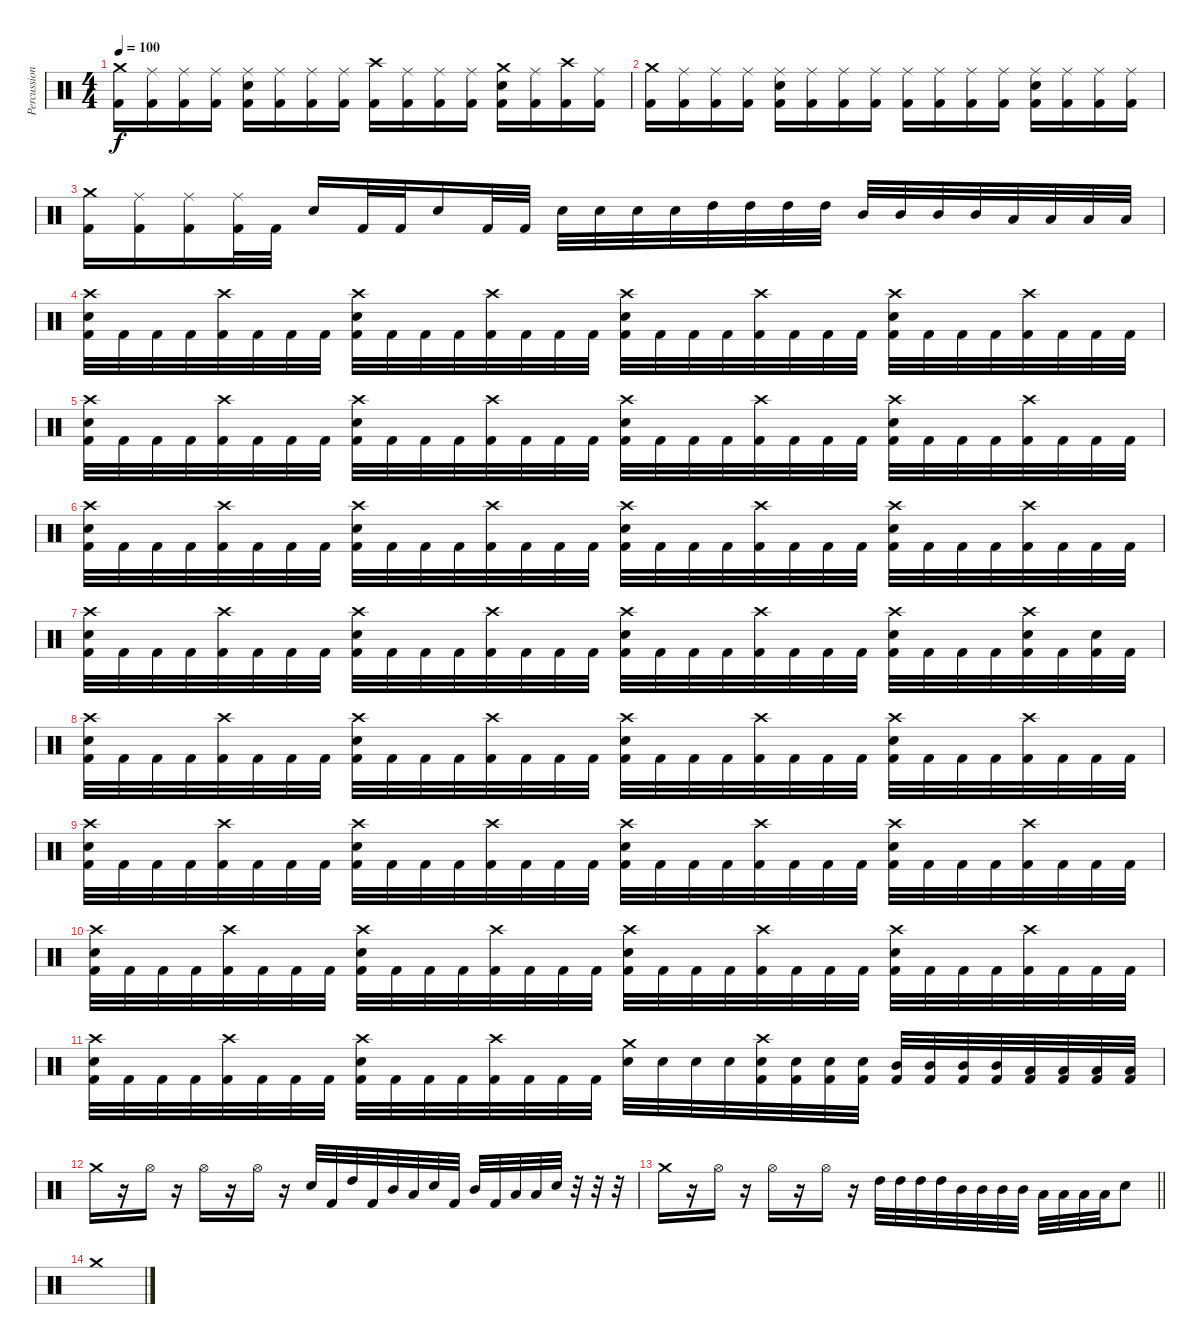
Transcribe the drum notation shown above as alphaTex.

\track ("Percussion" "Percussion") {instrument percussion}
\staff {score}
\articulation defaults
\ts (4 4)
\tempo 100
\clef neutral
\ks c
("Crash medium (hit)" "Kick (hit) 2").16{dy f} ("Ride (middle)" "Kick (hit) 2").16 ("Ride (middle)" "Kick (hit) 2").16 ("Ride (middle)" "Kick (hit) 2").16 ("Ride (middle)" "Electric Snare (hit)" "Kick (hit) 2").16 ("Ride (middle)" "Kick (hit) 2").16 ("Ride (middle)" "Kick (hit) 2").16 ("Ride (middle)" "Kick (hit) 2").16 ("Crash high (hit)" "Kick (hit) 2").16 ("Ride (middle)" "Kick (hit) 2").16 ("Ride (middle)" "Kick (hit) 2").16 ("Ride (middle)" "Kick (hit) 2").16 ("Crash medium (hit)" "Electric Snare (hit)" "Kick (hit) 2").16 ("Ride (middle)" "Kick (hit) 2").16 ("Crash high (hit)" "Kick (hit) 2").16 ("Ride (middle)" "Kick (hit) 2").16 |
("Crash medium (hit)" "Kick (hit) 2").16 ("Ride (middle)" "Kick (hit) 2").16 ("Ride (middle)" "Kick (hit) 2").16 ("Ride (middle)" "Kick (hit) 2").16 ("Ride (middle)" "Electric Snare (hit)" "Kick (hit) 2").16 ("Ride (middle)" "Kick (hit) 2").16 ("Ride (middle)" "Kick (hit) 2").16 ("Ride (middle)" "Kick (hit) 2").16 ("Ride (middle)" "Kick (hit) 2").16 ("Ride (middle)" "Kick (hit) 2").16 ("Ride (middle)" "Kick (hit) 2").16 ("Ride (middle)" "Kick (hit) 2").16 ("Ride (middle)" "Electric Snare (hit)" "Kick (hit) 2").16 ("Ride (middle)" "Kick (hit) 2").16 ("Ride (middle)" "Kick (hit) 2").16 ("Ride (middle)" "Kick (hit) 2").16 |
("Crash medium (hit)" "Kick (hit) 2").16 ("Ride (middle)" "Kick (hit) 2").16 ("Ride (middle)" "Kick (hit) 2").16 ("Ride (middle)" "Kick (hit) 2").32 "Kick (hit) 2".32 "Electric Snare (hit)".16 "Kick (hit) 2".32 "Kick (hit) 2".32 "Electric Snare (hit)".16 "Kick (hit) 2".32 "Kick (hit) 2".32 "Electric Snare (hit)".32 "Electric Snare (hit)".32 "Electric Snare (hit)".32 "Electric Snare (hit)".32 "High Tom (hit)".32 "High Tom (hit)".32 "High Tom (hit)".32 "High Tom (hit)".32 "Mid Tom (hit)".32 "Mid Tom (hit)".32 "Mid Tom (hit)".32 "Mid Tom (hit)".32 "Low Tom (hit)".32 "Low Tom (hit)".32 "Low Tom (hit)".32 "Low Tom (hit)".32 |
("Crash high (hit)" "Electric Snare (hit)" "Kick (hit) 2").32 "Kick (hit) 2".32 "Kick (hit) 2".32 "Kick (hit) 2".32 ("Crash high (hit)" "Kick (hit) 2").32 "Kick (hit) 2".32 "Kick (hit) 2".32 "Kick (hit) 2".32 ("Crash high (hit)" "Electric Snare (hit)" "Kick (hit) 2").32 "Kick (hit) 2".32 "Kick (hit) 2".32 "Kick (hit) 2".32 ("Crash high (hit)" "Kick (hit) 2").32 "Kick (hit) 2".32 "Kick (hit) 2".32 "Kick (hit) 2".32 ("Crash high (hit)" "Electric Snare (hit)" "Kick (hit) 2").32 "Kick (hit) 2".32 "Kick (hit) 2".32 "Kick (hit) 2".32 ("Crash high (hit)" "Kick (hit) 2").32 "Kick (hit) 2".32 "Kick (hit) 2".32 "Kick (hit) 2".32 ("Crash high (hit)" "Electric Snare (hit)" "Kick (hit) 2").32 "Kick (hit) 2".32 "Kick (hit) 2".32 "Kick (hit) 2".32 ("Crash high (hit)" "Kick (hit) 2").32 "Kick (hit) 2".32 "Kick (hit) 2".32 "Kick (hit) 2".32 |
("Crash high (hit)" "Electric Snare (hit)" "Kick (hit) 2").32 "Kick (hit) 2".32 "Kick (hit) 2".32 "Kick (hit) 2".32 ("Crash high (hit)" "Kick (hit) 2").32 "Kick (hit) 2".32 "Kick (hit) 2".32 "Kick (hit) 2".32 ("Crash high (hit)" "Electric Snare (hit)" "Kick (hit) 2").32 "Kick (hit) 2".32 "Kick (hit) 2".32 "Kick (hit) 2".32 ("Crash high (hit)" "Kick (hit) 2").32 "Kick (hit) 2".32 "Kick (hit) 2".32 "Kick (hit) 2".32 ("Crash high (hit)" "Electric Snare (hit)" "Kick (hit) 2").32 "Kick (hit) 2".32 "Kick (hit) 2".32 "Kick (hit) 2".32 ("Crash high (hit)" "Kick (hit) 2").32 "Kick (hit) 2".32 "Kick (hit) 2".32 "Kick (hit) 2".32 ("Crash high (hit)" "Electric Snare (hit)" "Kick (hit) 2").32 "Kick (hit) 2".32 "Kick (hit) 2".32 "Kick (hit) 2".32 ("Crash high (hit)" "Kick (hit) 2").32 "Kick (hit) 2".32 "Kick (hit) 2".32 "Kick (hit) 2".32 |
("Crash high (hit)" "Electric Snare (hit)" "Kick (hit) 2").32 "Kick (hit) 2".32 "Kick (hit) 2".32 "Kick (hit) 2".32 ("Crash high (hit)" "Kick (hit) 2").32 "Kick (hit) 2".32 "Kick (hit) 2".32 "Kick (hit) 2".32 ("Crash high (hit)" "Electric Snare (hit)" "Kick (hit) 2").32 "Kick (hit) 2".32 "Kick (hit) 2".32 "Kick (hit) 2".32 ("Crash high (hit)" "Kick (hit) 2").32 "Kick (hit) 2".32 "Kick (hit) 2".32 "Kick (hit) 2".32 ("Crash high (hit)" "Electric Snare (hit)" "Kick (hit) 2").32 "Kick (hit) 2".32 "Kick (hit) 2".32 "Kick (hit) 2".32 ("Crash high (hit)" "Kick (hit) 2").32 "Kick (hit) 2".32 "Kick (hit) 2".32 "Kick (hit) 2".32 ("Crash high (hit)" "Electric Snare (hit)" "Kick (hit) 2").32 "Kick (hit) 2".32 "Kick (hit) 2".32 "Kick (hit) 2".32 ("Crash high (hit)" "Kick (hit) 2").32 "Kick (hit) 2".32 "Kick (hit) 2".32 "Kick (hit) 2".32 |
("Crash high (hit)" "Electric Snare (hit)" "Kick (hit) 2").32 "Kick (hit) 2".32 "Kick (hit) 2".32 "Kick (hit) 2".32 ("Crash high (hit)" "Kick (hit) 2").32 "Kick (hit) 2".32 "Kick (hit) 2".32 "Kick (hit) 2".32 ("Crash high (hit)" "Electric Snare (hit)" "Kick (hit) 2").32 "Kick (hit) 2".32 "Kick (hit) 2".32 "Kick (hit) 2".32 ("Crash high (hit)" "Kick (hit) 2").32 "Kick (hit) 2".32 "Kick (hit) 2".32 "Kick (hit) 2".32 ("Crash high (hit)" "Electric Snare (hit)" "Kick (hit) 2").32 "Kick (hit) 2".32 "Kick (hit) 2".32 "Kick (hit) 2".32 ("Crash high (hit)" "Kick (hit) 2").32 "Kick (hit) 2".32 "Kick (hit) 2".32 "Kick (hit) 2".32 ("Crash high (hit)" "Electric Snare (hit)" "Kick (hit) 2").32 "Kick (hit) 2".32 "Kick (hit) 2".32 "Kick (hit) 2".32 ("Crash high (hit)" "Electric Snare (hit)" "Kick (hit) 2").32 "Kick (hit) 2".32 ("Electric Snare (hit)" "Kick (hit) 2").32 "Kick (hit) 2".32 |
("Crash high (hit)" "Electric Snare (hit)" "Kick (hit) 2").32 "Kick (hit) 2".32 "Kick (hit) 2".32 "Kick (hit) 2".32 ("Crash high (hit)" "Kick (hit) 2").32 "Kick (hit) 2".32 "Kick (hit) 2".32 "Kick (hit) 2".32 ("Crash high (hit)" "Electric Snare (hit)" "Kick (hit) 2").32 "Kick (hit) 2".32 "Kick (hit) 2".32 "Kick (hit) 2".32 ("Crash high (hit)" "Kick (hit) 2").32 "Kick (hit) 2".32 "Kick (hit) 2".32 "Kick (hit) 2".32 ("Crash high (hit)" "Electric Snare (hit)" "Kick (hit) 2").32 "Kick (hit) 2".32 "Kick (hit) 2".32 "Kick (hit) 2".32 ("Crash high (hit)" "Kick (hit) 2").32 "Kick (hit) 2".32 "Kick (hit) 2".32 "Kick (hit) 2".32 ("Crash high (hit)" "Electric Snare (hit)" "Kick (hit) 2").32 "Kick (hit) 2".32 "Kick (hit) 2".32 "Kick (hit) 2".32 ("Crash high (hit)" "Kick (hit) 2").32 "Kick (hit) 2".32 "Kick (hit) 2".32 "Kick (hit) 2".32 |
("Crash high (hit)" "Electric Snare (hit)" "Kick (hit) 2").32 "Kick (hit) 2".32 "Kick (hit) 2".32 "Kick (hit) 2".32 ("Crash high (hit)" "Kick (hit) 2").32 "Kick (hit) 2".32 "Kick (hit) 2".32 "Kick (hit) 2".32 ("Crash high (hit)" "Electric Snare (hit)" "Kick (hit) 2").32 "Kick (hit) 2".32 "Kick (hit) 2".32 "Kick (hit) 2".32 ("Crash high (hit)" "Kick (hit) 2").32 "Kick (hit) 2".32 "Kick (hit) 2".32 "Kick (hit) 2".32 ("Crash high (hit)" "Electric Snare (hit)" "Kick (hit) 2").32 "Kick (hit) 2".32 "Kick (hit) 2".32 "Kick (hit) 2".32 ("Crash high (hit)" "Kick (hit) 2").32 "Kick (hit) 2".32 "Kick (hit) 2".32 "Kick (hit) 2".32 ("Crash high (hit)" "Electric Snare (hit)" "Kick (hit) 2").32 "Kick (hit) 2".32 "Kick (hit) 2".32 "Kick (hit) 2".32 ("Crash high (hit)" "Kick (hit) 2").32 "Kick (hit) 2".32 "Kick (hit) 2".32 "Kick (hit) 2".32 |
("Crash high (hit)" "Electric Snare (hit)" "Kick (hit) 2").32 "Kick (hit) 2".32 "Kick (hit) 2".32 "Kick (hit) 2".32 ("Crash high (hit)" "Kick (hit) 2").32 "Kick (hit) 2".32 "Kick (hit) 2".32 "Kick (hit) 2".32 ("Crash high (hit)" "Electric Snare (hit)" "Kick (hit) 2").32 "Kick (hit) 2".32 "Kick (hit) 2".32 "Kick (hit) 2".32 ("Crash high (hit)" "Kick (hit) 2").32 "Kick (hit) 2".32 "Kick (hit) 2".32 "Kick (hit) 2".32 ("Crash high (hit)" "Electric Snare (hit)" "Kick (hit) 2").32 "Kick (hit) 2".32 "Kick (hit) 2".32 "Kick (hit) 2".32 ("Crash high (hit)" "Kick (hit) 2").32 "Kick (hit) 2".32 "Kick (hit) 2".32 "Kick (hit) 2".32 ("Crash high (hit)" "Electric Snare (hit)" "Kick (hit) 2").32 "Kick (hit) 2".32 "Kick (hit) 2".32 "Kick (hit) 2".32 ("Crash high (hit)" "Kick (hit) 2").32 "Kick (hit) 2".32 "Kick (hit) 2".32 "Kick (hit) 2".32 |
("Crash high (hit)" "Electric Snare (hit)" "Kick (hit) 2").32 "Kick (hit) 2".32 "Kick (hit) 2".32 "Kick (hit) 2".32 ("Crash high (hit)" "Kick (hit) 2").32 "Kick (hit) 2".32 "Kick (hit) 2".32 "Kick (hit) 2".32 ("Crash high (hit)" "Electric Snare (hit)" "Kick (hit) 2").32 "Kick (hit) 2".32 "Kick (hit) 2".32 "Kick (hit) 2".32 ("Crash high (hit)" "Kick (hit) 2").32 "Kick (hit) 2".32 "Kick (hit) 2".32 "Kick (hit) 2".32 ("Crash medium (hit)" "Electric Snare (hit)").32 "Electric Snare (hit)".32 "Electric Snare (hit)".32 "Electric Snare (hit)".32 ("Crash high (hit)" "Electric Snare (hit)" "Kick (hit) 2").32 ("Electric Snare (hit)" "Kick (hit) 2").32 ("Electric Snare (hit)" "Kick (hit) 2").32 ("Electric Snare (hit)" "Kick (hit) 2").32 ("Mid Tom (hit)" "Kick (hit) 2").32 ("Mid Tom (hit)" "Kick (hit) 2").32 ("Mid Tom (hit)" "Kick (hit) 2").32 ("Mid Tom (hit)" "Kick (hit) 2").32 ("Low Tom (hit)" "Kick (hit) 2").32 ("Low Tom (hit)" "Kick (hit) 2").32 ("Low Tom (hit)" "Kick (hit) 2").32 ("Low Tom (hit)" "Kick (hit) 2").32 |
"Crash medium (hit)".16 r.16 "Hi-Hat (open)".16 r.16 "Hi-Hat (open)".16 r.16 "Hi-Hat (open)".16 r.16 "Electric Snare (hit)".32 "Kick (hit) 2".32 "High Tom (hit)".32 "Kick (hit) 2".32 "Mid Tom (hit)".32 "Low Tom (hit)".32 "Electric Snare (hit)".32 "Kick (hit) 2".32 "Mid Tom (hit)".32 "Kick (hit) 2".32 "Low Tom (hit)".32 "Low Tom (hit)".32 "Electric Snare (hit)".32 r.32 r.32 r.32 |
\barLineRight lightlight "Crash medium (hit)".16
r.16 "Hi-Hat (open)".16 r.16 "Hi-Hat (open)".16 r.16 "Hi-Hat (open)".16 r.16 "High Tom (hit)".32 "High Tom (hit)".32 "High Tom (hit)".32 "High Tom (hit)".32 "Mid Tom (hit)".32 "Mid Tom (hit)".32 "Mid Tom (hit)".32 "Mid Tom (hit)".32 "Low Tom (hit)".32 "Low Tom (hit)".32 "Low Tom (hit)".32 "Low Tom (hit)".32 "Electric Snare (hit)".8 |
"Crash medium (hit)".1
